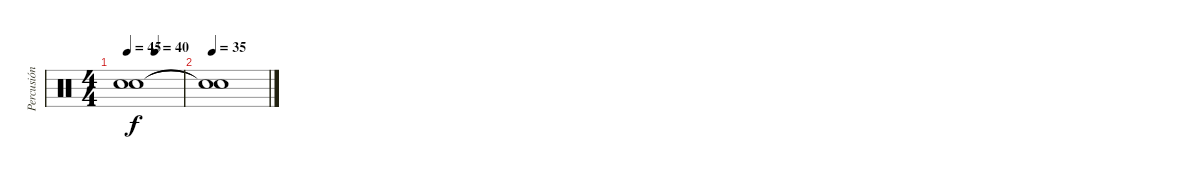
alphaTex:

\track ("Percusión" "Percusión") {instrument percussion}
\staff {score}
\articulation defaults
\ts (4 4)
\tempo 45
\tempo (40 0.5)
\clef neutral
\ks c
("Snare (hit)"{t} "Snare (hit)"{t}).1{dy f} |
\tempo 35
("Snare (hit)"{t} "Snare (hit)"{t}).1
